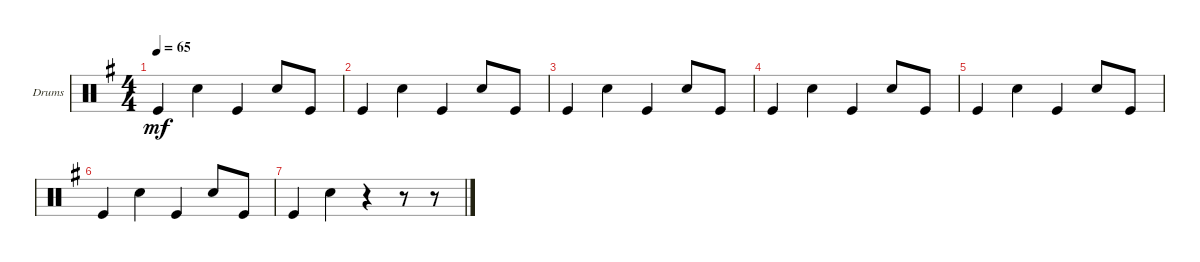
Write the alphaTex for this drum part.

\defaultSystemsLayout 4
\bracketExtendMode groupsimilarinstruments
\firstSystemTrackNameOrientation horizontal
\otherSystemsTrackNameOrientation horizontal
\track ("Drumkit" "Drums") {instrument percussion}
\staff {score}
\articulation defaults
\ts (4 4)
\tempo 65
\clef neutral
\ks g "Kick (hit)".4{dy mf} "Snare (hit) 2".4 "Kick (hit)".4 "Snare (hit) 2".8 "Kick (hit)".8
|
"Kick (hit)".4 "Snare (hit) 2".4 "Kick (hit)".4 "Snare (hit) 2".8 "Kick (hit)".8 |
"Kick (hit)".4 "Snare (hit) 2".4 "Kick (hit)".4 "Snare (hit) 2".8 "Kick (hit)".8 |
"Kick (hit)".4 "Snare (hit) 2".4 "Kick (hit)".4 "Snare (hit) 2".8 "Kick (hit)".8 |
"Kick (hit)".4 "Snare (hit) 2".4 "Kick (hit)".4 "Snare (hit) 2".8 "Kick (hit)".8 |
"Kick (hit)".4 "Snare (hit) 2".4 "Kick (hit)".4 "Snare (hit) 2".8 "Kick (hit)".8 |
"Kick (hit)".4 "Snare (hit) 2".4 r.4 r.8 r.8
